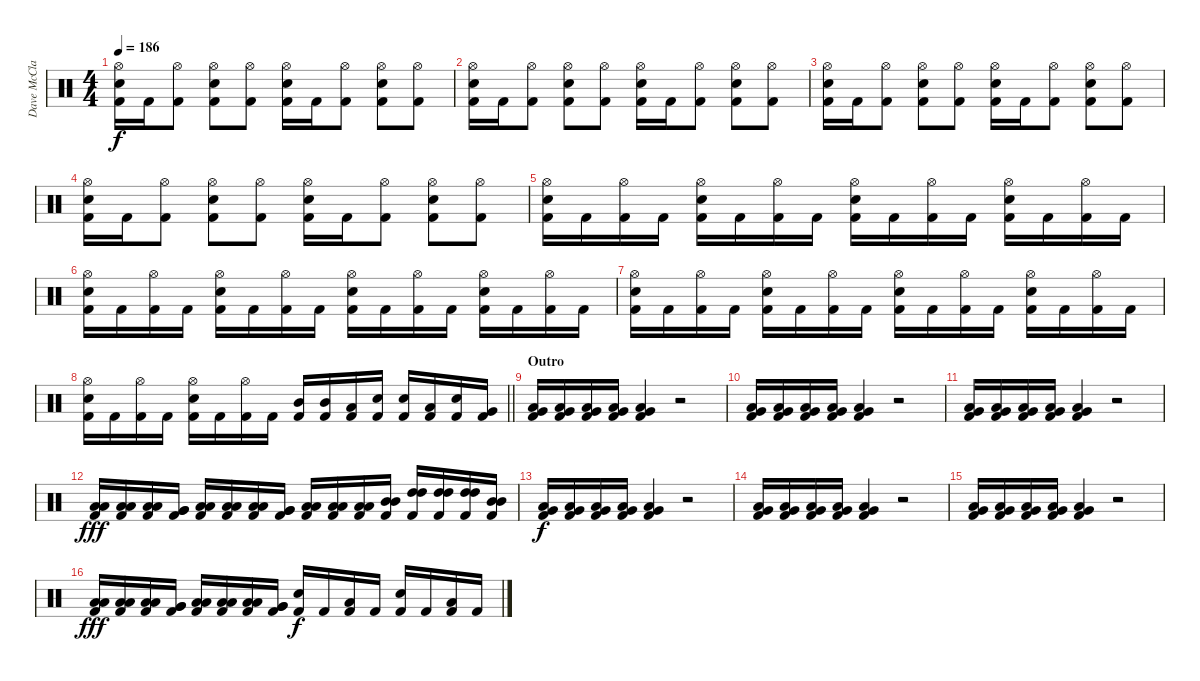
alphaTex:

\track ("Dave McClain" "Dave McCla") {instrument percussion}
\staff {score}
\articulation defaults
\ts (4 4)
\tempo 186
\clef neutral
\ks c
("Hi-Hat (open)" "Snare (hit) 2" "Kick (hit) 2").16{dy f} "Kick (hit) 2".16 ("Hi-Hat (open)" "Kick (hit) 2").8 ("Hi-Hat (open)" "Snare (hit) 2" "Kick (hit) 2").8 ("Hi-Hat (open)" "Kick (hit) 2").8 ("Hi-Hat (open)" "Snare (hit) 2" "Kick (hit) 2").16 "Kick (hit) 2".16 ("Hi-Hat (open)" "Kick (hit) 2").8 ("Hi-Hat (open)" "Snare (hit) 2" "Kick (hit) 2").8 ("Hi-Hat (open)" "Kick (hit) 2").8 |
("Hi-Hat (open)" "Snare (hit) 2" "Kick (hit) 2").16 "Kick (hit) 2".16 ("Hi-Hat (open)" "Kick (hit) 2").8 ("Hi-Hat (open)" "Snare (hit) 2" "Kick (hit) 2").8 ("Hi-Hat (open)" "Kick (hit) 2").8 ("Hi-Hat (open)" "Snare (hit) 2" "Kick (hit) 2").16 "Kick (hit) 2".16 ("Hi-Hat (open)" "Kick (hit) 2").8 ("Hi-Hat (open)" "Snare (hit) 2" "Kick (hit) 2").8 ("Hi-Hat (open)" "Kick (hit) 2").8 |
("Hi-Hat (open)" "Snare (hit) 2" "Kick (hit) 2").16 "Kick (hit) 2".16 ("Hi-Hat (open)" "Kick (hit) 2").8 ("Hi-Hat (open)" "Snare (hit) 2" "Kick (hit) 2").8 ("Hi-Hat (open)" "Kick (hit) 2").8 ("Hi-Hat (open)" "Snare (hit) 2" "Kick (hit) 2").16 "Kick (hit) 2".16 ("Hi-Hat (open)" "Kick (hit) 2").8 ("Hi-Hat (open)" "Snare (hit) 2" "Kick (hit) 2").8 ("Hi-Hat (open)" "Kick (hit) 2").8 |
("Hi-Hat (open)" "Snare (hit) 2" "Kick (hit) 2").16 "Kick (hit) 2".16 ("Hi-Hat (open)" "Kick (hit) 2").8 ("Hi-Hat (open)" "Snare (hit) 2" "Kick (hit) 2").8 ("Hi-Hat (open)" "Kick (hit) 2").8 ("Hi-Hat (open)" "Snare (hit) 2" "Kick (hit) 2").16 "Kick (hit) 2".16 ("Hi-Hat (open)" "Kick (hit) 2").8 ("Hi-Hat (open)" "Snare (hit) 2" "Kick (hit) 2").8 ("Hi-Hat (open)" "Kick (hit) 2").8 |
("Hi-Hat (open)" "Snare (hit) 2" "Kick (hit) 2").16 "Kick (hit) 2".16 ("Hi-Hat (open)" "Kick (hit) 2").16 "Kick (hit) 2".16 ("Hi-Hat (open)" "Snare (hit) 2" "Kick (hit) 2").16 "Kick (hit) 2".16 ("Hi-Hat (open)" "Kick (hit) 2").16 "Kick (hit) 2".16 ("Hi-Hat (open)" "Snare (hit) 2" "Kick (hit) 2").16 "Kick (hit) 2".16 ("Hi-Hat (open)" "Kick (hit) 2").16 "Kick (hit) 2".16 ("Hi-Hat (open)" "Snare (hit) 2" "Kick (hit) 2").16 "Kick (hit) 2".16 ("Hi-Hat (open)" "Kick (hit) 2").16 "Kick (hit) 2".16 |
("Hi-Hat (open)" "Snare (hit) 2" "Kick (hit) 2").16 "Kick (hit) 2".16 ("Hi-Hat (open)" "Kick (hit) 2").16 "Kick (hit) 2".16 ("Hi-Hat (open)" "Snare (hit) 2" "Kick (hit) 2").16 "Kick (hit) 2".16 ("Hi-Hat (open)" "Kick (hit) 2").16 "Kick (hit) 2".16 ("Hi-Hat (open)" "Snare (hit) 2" "Kick (hit) 2").16 "Kick (hit) 2".16 ("Hi-Hat (open)" "Kick (hit) 2").16 "Kick (hit) 2".16 ("Hi-Hat (open)" "Snare (hit) 2" "Kick (hit) 2").16 "Kick (hit) 2".16 ("Hi-Hat (open)" "Kick (hit) 2").16 "Kick (hit) 2".16 |
("Hi-Hat (open)" "Snare (hit) 2" "Kick (hit) 2").16 "Kick (hit) 2".16 ("Hi-Hat (open)" "Kick (hit) 2").16 "Kick (hit) 2".16 ("Hi-Hat (open)" "Snare (hit) 2" "Kick (hit) 2").16 "Kick (hit) 2".16 ("Hi-Hat (open)" "Kick (hit) 2").16 "Kick (hit) 2".16 ("Hi-Hat (open)" "Snare (hit) 2" "Kick (hit) 2").16 "Kick (hit) 2".16 ("Hi-Hat (open)" "Kick (hit) 2").16 "Kick (hit) 2".16 ("Hi-Hat (open)" "Snare (hit) 2" "Kick (hit) 2").16 "Kick (hit) 2".16 ("Hi-Hat (open)" "Kick (hit) 2").16 "Kick (hit) 2".16 |
\barLineRight lightlight
("Hi-Hat (open)" "Snare (hit) 2" "Kick (hit) 2").16 "Kick (hit) 2".16 ("Hi-Hat (open)" "Kick (hit) 2").16 "Kick (hit) 2".16 ("Hi-Hat (open)" "Snare (hit) 2" "Kick (hit) 2").16 "Kick (hit) 2".16 ("Hi-Hat (open)" "Kick (hit) 2").16 "Kick (hit) 2".16 ("Mid Tom (hit)" "Kick (hit) 2").16 ("Mid Tom (hit)" "Kick (hit) 2").16 ("Low Tom (hit)" "Kick (hit) 2").16 ("Snare (hit) 2" "Kick (hit) 2").16 ("Snare (hit) 2" "Kick (hit) 2").16 ("Low Tom (hit)" "Kick (hit) 2").16 ("Snare (hit) 2" "Kick (hit) 2").16 ("Very Low Tom (hit)" "Kick (hit) 2").16 |
\section ("" "Outro")
("Very Low Tom (hit)" "Low Floor Tom (hit)" "Kick (hit) 2").16 ("Very Low Tom (hit)" "Low Floor Tom (hit)" "Kick (hit) 2").16 ("Very Low Tom (hit)" "Low Floor Tom (hit)" "Kick (hit) 2").16 ("Very Low Tom (hit)" "Low Floor Tom (hit)" "Kick (hit) 2").16 ("Very Low Tom (hit)" "Low Floor Tom (hit)" "Kick (hit) 2").4 r.2 |
("Very Low Tom (hit)" "Low Floor Tom (hit)" "Kick (hit) 2").16 ("Very Low Tom (hit)" "Low Floor Tom (hit)" "Kick (hit) 2").16 ("Very Low Tom (hit)" "Low Floor Tom (hit)" "Kick (hit) 2").16 ("Very Low Tom (hit)" "Low Floor Tom (hit)" "Kick (hit) 2").16 ("Very Low Tom (hit)" "Low Floor Tom (hit)" "Kick (hit) 2").4 r.2 |
("Very Low Tom (hit)" "Low Floor Tom (hit)" "Kick (hit) 2").16 ("Very Low Tom (hit)" "Low Floor Tom (hit)" "Kick (hit) 2").16 ("Very Low Tom (hit)" "Low Floor Tom (hit)" "Kick (hit) 2").16 ("Very Low Tom (hit)" "Low Floor Tom (hit)" "Kick (hit) 2").16 ("Very Low Tom (hit)" "Low Floor Tom (hit)" "Kick (hit) 2").4 r.2 |
("Low Tom (hit)" "Low Tom (hit)" "Kick (hit) 2").16{dy fff} ("Low Tom (hit)" "Low Tom (hit)" "Kick (hit) 2").16 ("Low Tom (hit)" "Low Tom (hit)" "Kick (hit) 2").16 ("Very Low Tom (hit)" "Very Low Tom (hit)" "Kick (hit) 2").16 ("Low Floor Tom (hit)" "Low Floor Tom (hit)" "Kick (hit) 2").16 ("Low Floor Tom (hit)" "Low Floor Tom (hit)" "Kick (hit) 2").16 ("Low Floor Tom (hit)" "Low Floor Tom (hit)" "Kick (hit) 2").16 ("Very Low Tom (hit)" "Very Low Tom (hit)" "Kick (hit) 2").16 ("Low Tom (hit)" "Low Tom (hit)" "Kick (hit) 2").16 ("Low Tom (hit)" "Low Tom (hit)" "Kick (hit) 2").16 ("Low Tom (hit)" "Low Tom (hit)" "Kick (hit) 2").16 ("Mid Tom (hit)" "Mid Tom (hit)" "Kick (hit) 2").16 ("High Tom (hit)" "High Tom (hit)" "Kick (hit) 2").16 ("High Tom (hit)" "High Tom (hit)" "Kick (hit) 2").16 ("High Tom (hit)" "High Tom (hit)" "Kick (hit) 2").16 ("Mid Tom (hit)" "Mid Tom (hit)" "Kick (hit) 2").16 |
("Very Low Tom (hit)" "Low Floor Tom (hit)" "Kick (hit) 2").16{dy f} ("Very Low Tom (hit)" "Low Floor Tom (hit)" "Kick (hit) 2").16 ("Very Low Tom (hit)" "Low Floor Tom (hit)" "Kick (hit) 2").16 ("Very Low Tom (hit)" "Low Floor Tom (hit)" "Kick (hit) 2").16 ("Very Low Tom (hit)" "Low Floor Tom (hit)" "Kick (hit) 2").4 r.2 |
("Very Low Tom (hit)" "Low Floor Tom (hit)" "Kick (hit) 2").16 ("Very Low Tom (hit)" "Low Floor Tom (hit)" "Kick (hit) 2").16 ("Very Low Tom (hit)" "Low Floor Tom (hit)" "Kick (hit) 2").16 ("Very Low Tom (hit)" "Low Floor Tom (hit)" "Kick (hit) 2").16 ("Very Low Tom (hit)" "Low Floor Tom (hit)" "Kick (hit) 2").4 r.2 |
("Very Low Tom (hit)" "Low Floor Tom (hit)" "Kick (hit) 2").16 ("Very Low Tom (hit)" "Low Floor Tom (hit)" "Kick (hit) 2").16 ("Very Low Tom (hit)" "Low Floor Tom (hit)" "Kick (hit) 2").16 ("Very Low Tom (hit)" "Low Floor Tom (hit)" "Kick (hit) 2").16 ("Very Low Tom (hit)" "Low Floor Tom (hit)" "Kick (hit) 2").4 r.2 |
("Low Tom (hit)" "Low Tom (hit)" "Kick (hit) 2").16{dy fff} ("Low Tom (hit)" "Low Tom (hit)" "Kick (hit) 2").16 ("Low Tom (hit)" "Low Tom (hit)" "Kick (hit) 2").16 ("Very Low Tom (hit)" "Very Low Tom (hit)" "Kick (hit) 2").16 ("Low Floor Tom (hit)" "Low Floor Tom (hit)" "Kick (hit) 2").16 ("Low Floor Tom (hit)" "Low Floor Tom (hit)" "Kick (hit) 2").16 ("Low Floor Tom (hit)" "Low Floor Tom (hit)" "Kick (hit) 2").16 ("Very Low Tom (hit)" "Very Low Tom (hit)" "Kick (hit) 2").16 ("Snare (hit) 2" "Kick (hit) 2").16{dy f} "Kick (hit) 2".16 ("Low Tom (hit)" "Kick (hit) 2").16 "Kick (hit) 2".16 ("Snare (hit) 2" "Kick (hit) 2").16 "Kick (hit) 2".16 ("Low Tom (hit)" "Kick (hit) 2").16 "Kick (hit) 2".16
